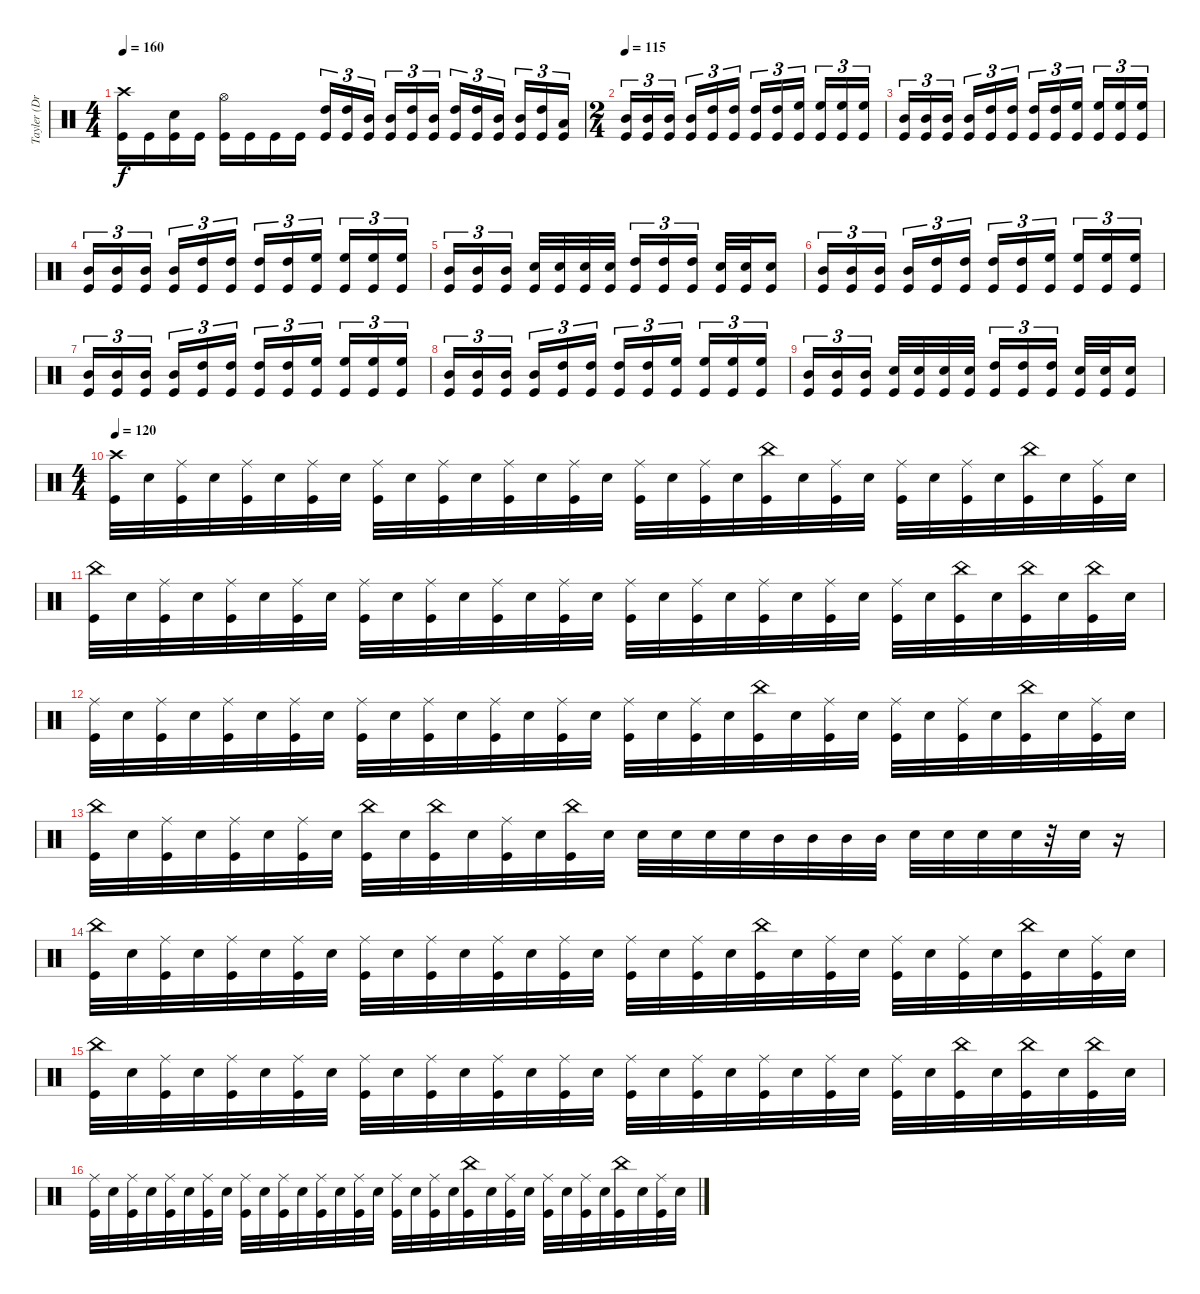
\track ("Tayler (Drums)" "Tayler (Dr") {instrument percussion}
\staff {score}
\articulation defaults
\ts (4 4)
\tempo 160
\clef neutral
\ks c
("Crash high (hit)" "Kick (hit)").16{dy f} "Kick (hit)".16 ("Electric Snare (hit)" "Kick (hit)").16 "Kick (hit)".16 ("Hi-Hat (open)" "Kick (hit)").16 "Kick (hit)".16 "Kick (hit)".16 "Kick (hit)".16 ("High Tom (hit)" "Kick (hit)").16{tu (3 2)} ("High Tom (hit)" "Kick (hit)").16{tu (3 2)} ("Mid Tom (hit)" "Kick (hit)").16{tu (3 2)} ("Mid Tom (hit)" "Kick (hit)").16{tu (3 2)} ("High Tom (hit)" "Kick (hit)").16{tu (3 2)} ("Mid Tom (hit)" "Kick (hit)").16{tu (3 2)} ("High Tom (hit)" "Kick (hit)").16{tu (3 2)} ("High Tom (hit)" "Kick (hit)").16{tu (3 2)} ("Mid Tom (hit)" "Kick (hit)").16{tu (3 2)} ("Mid Tom (hit)" "Kick (hit)").16{tu (3 2)} ("High Tom (hit)" "Kick (hit)").16{tu (3 2)} ("Low Tom (hit)" "Kick (hit)").16{tu (3 2)} |
\ts (2 4)
\tempo 115
("Mid Tom (hit)" "Kick (hit)").16{tu (3 2)} ("Mid Tom (hit)" "Kick (hit)").16{tu (3 2)} ("Mid Tom (hit)" "Kick (hit)").16{tu (3 2)} ("Mid Tom (hit)" "Kick (hit)").16{tu (3 2)} ("High Tom (hit)" "Kick (hit)").16{tu (3 2)} ("High Tom (hit)" "Kick (hit)").16{tu (3 2)} ("High Tom (hit)" "Kick (hit)").16{tu (3 2)} ("High Tom (hit)" "Kick (hit)").16{tu (3 2)} ("High Floor Tom (hit)" "Kick (hit)").16{tu (3 2)} ("High Floor Tom (hit)" "Kick (hit)").16{tu (3 2)} ("High Floor Tom (hit)" "Kick (hit)").16{tu (3 2)} ("High Floor Tom (hit)" "Kick (hit)").16{tu (3 2)} |
("Mid Tom (hit)" "Kick (hit)").16{tu (3 2)} ("Mid Tom (hit)" "Kick (hit)").16{tu (3 2)} ("Mid Tom (hit)" "Kick (hit)").16{tu (3 2)} ("Mid Tom (hit)" "Kick (hit)").16{tu (3 2)} ("High Tom (hit)" "Kick (hit)").16{tu (3 2)} ("High Tom (hit)" "Kick (hit)").16{tu (3 2)} ("High Tom (hit)" "Kick (hit)").16{tu (3 2)} ("High Tom (hit)" "Kick (hit)").16{tu (3 2)} ("High Floor Tom (hit)" "Kick (hit)").16{tu (3 2)} ("High Floor Tom (hit)" "Kick (hit)").16{tu (3 2)} ("High Floor Tom (hit)" "Kick (hit)").16{tu (3 2)} ("High Floor Tom (hit)" "Kick (hit)").16{tu (3 2)} |
("Mid Tom (hit)" "Kick (hit)").16{tu (3 2)} ("Mid Tom (hit)" "Kick (hit)").16{tu (3 2)} ("Mid Tom (hit)" "Kick (hit)").16{tu (3 2)} ("Mid Tom (hit)" "Kick (hit)").16{tu (3 2)} ("High Tom (hit)" "Kick (hit)").16{tu (3 2)} ("High Tom (hit)" "Kick (hit)").16{tu (3 2)} ("High Tom (hit)" "Kick (hit)").16{tu (3 2)} ("High Tom (hit)" "Kick (hit)").16{tu (3 2)} ("High Floor Tom (hit)" "Kick (hit)").16{tu (3 2)} ("High Floor Tom (hit)" "Kick (hit)").16{tu (3 2)} ("High Floor Tom (hit)" "Kick (hit)").16{tu (3 2)} ("High Floor Tom (hit)" "Kick (hit)").16{tu (3 2)} |
("Mid Tom (hit)" "Kick (hit)").16{tu (3 2)} ("Mid Tom (hit)" "Kick (hit)").16{tu (3 2)} ("Mid Tom (hit)" "Kick (hit)").16{tu (3 2)} ("Electric Snare (hit)" "Kick (hit)").32 ("Electric Snare (hit)" "Kick (hit)").32 ("Electric Snare (hit)" "Kick (hit)").32 ("Electric Snare (hit)" "Kick (hit)").32 ("High Tom (hit)" "Kick (hit)").16{tu (3 2)} ("High Tom (hit)" "Kick (hit)").16{tu (3 2)} ("High Tom (hit)" "Kick (hit)").16{tu (3 2)} ("Electric Snare (hit)" "Kick (hit)").32 ("Electric Snare (hit)" "Kick (hit)").32 ("Electric Snare (hit)" "Kick (hit)").16 |
("Mid Tom (hit)" "Kick (hit)").16{tu (3 2)} ("Mid Tom (hit)" "Kick (hit)").16{tu (3 2)} ("Mid Tom (hit)" "Kick (hit)").16{tu (3 2)} ("Mid Tom (hit)" "Kick (hit)").16{tu (3 2)} ("High Tom (hit)" "Kick (hit)").16{tu (3 2)} ("High Tom (hit)" "Kick (hit)").16{tu (3 2)} ("High Tom (hit)" "Kick (hit)").16{tu (3 2)} ("High Tom (hit)" "Kick (hit)").16{tu (3 2)} ("High Floor Tom (hit)" "Kick (hit)").16{tu (3 2)} ("High Floor Tom (hit)" "Kick (hit)").16{tu (3 2)} ("High Floor Tom (hit)" "Kick (hit)").16{tu (3 2)} ("High Floor Tom (hit)" "Kick (hit)").16{tu (3 2)} |
("Mid Tom (hit)" "Kick (hit)").16{tu (3 2)} ("Mid Tom (hit)" "Kick (hit)").16{tu (3 2)} ("Mid Tom (hit)" "Kick (hit)").16{tu (3 2)} ("Mid Tom (hit)" "Kick (hit)").16{tu (3 2)} ("High Tom (hit)" "Kick (hit)").16{tu (3 2)} ("High Tom (hit)" "Kick (hit)").16{tu (3 2)} ("High Tom (hit)" "Kick (hit)").16{tu (3 2)} ("High Tom (hit)" "Kick (hit)").16{tu (3 2)} ("High Floor Tom (hit)" "Kick (hit)").16{tu (3 2)} ("High Floor Tom (hit)" "Kick (hit)").16{tu (3 2)} ("High Floor Tom (hit)" "Kick (hit)").16{tu (3 2)} ("High Floor Tom (hit)" "Kick (hit)").16{tu (3 2)} |
("Mid Tom (hit)" "Kick (hit)").16{tu (3 2)} ("Mid Tom (hit)" "Kick (hit)").16{tu (3 2)} ("Mid Tom (hit)" "Kick (hit)").16{tu (3 2)} ("Mid Tom (hit)" "Kick (hit)").16{tu (3 2)} ("High Tom (hit)" "Kick (hit)").16{tu (3 2)} ("High Tom (hit)" "Kick (hit)").16{tu (3 2)} ("High Tom (hit)" "Kick (hit)").16{tu (3 2)} ("High Tom (hit)" "Kick (hit)").16{tu (3 2)} ("High Floor Tom (hit)" "Kick (hit)").16{tu (3 2)} ("High Floor Tom (hit)" "Kick (hit)").16{tu (3 2)} ("High Floor Tom (hit)" "Kick (hit)").16{tu (3 2)} ("High Floor Tom (hit)" "Kick (hit)").16{tu (3 2)} |
("Mid Tom (hit)" "Kick (hit)").16{tu (3 2)} ("Mid Tom (hit)" "Kick (hit)").16{tu (3 2)} ("Mid Tom (hit)" "Kick (hit)").16{tu (3 2)} ("Electric Snare (hit)" "Kick (hit)").32 ("Electric Snare (hit)" "Kick (hit)").32 ("Electric Snare (hit)" "Kick (hit)").32 ("Electric Snare (hit)" "Kick (hit)").32 ("High Tom (hit)" "Kick (hit)").16{tu (3 2)} ("High Tom (hit)" "Kick (hit)").16{tu (3 2)} ("High Tom (hit)" "Kick (hit)").16{tu (3 2)} ("Electric Snare (hit)" "Kick (hit)").32 ("Electric Snare (hit)" "Kick (hit)").32 ("Electric Snare (hit)" "Kick (hit)").16 |
\ts (4 4)
\tempo 120
("Crash high (hit)" "Kick (hit)").32 "Electric Snare (hit)".32 ("Ride (middle)" "Kick (hit)").32 "Electric Snare (hit)".32 ("Ride (middle)" "Kick (hit)").32 "Electric Snare (hit)".32 ("Ride (middle)" "Kick (hit)").32 "Electric Snare (hit)".32 ("Ride (middle)" "Kick (hit)").32 "Electric Snare (hit)".32 ("Ride (middle)" "Kick (hit)").32 "Electric Snare (hit)".32 ("Ride (middle)" "Kick (hit)").32 "Electric Snare (hit)".32 ("Ride (middle)" "Kick (hit)").32 "Electric Snare (hit)".32 ("Ride (middle)" "Kick (hit)").32 "Electric Snare (hit)".32 ("Ride (middle)" "Kick (hit)").32 "Electric Snare (hit)".32 ("China (hit)" "Kick (hit)").32 "Electric Snare (hit)".32 ("Ride (middle)" "Kick (hit)").32 "Electric Snare (hit)".32 ("Ride (middle)" "Kick (hit)").32 "Electric Snare (hit)".32 ("Ride (middle)" "Kick (hit)").32 "Electric Snare (hit)".32 ("China (hit)" "Kick (hit)").32 "Electric Snare (hit)".32 ("Ride (middle)" "Kick (hit)").32 "Electric Snare (hit)".32 |
("China (hit)" "Kick (hit)").32 "Electric Snare (hit)".32 ("Ride (middle)" "Kick (hit)").32 "Electric Snare (hit)".32 ("Ride (middle)" "Kick (hit)").32 "Electric Snare (hit)".32 ("Ride (middle)" "Kick (hit)").32 "Electric Snare (hit)".32 ("Ride (middle)" "Kick (hit)").32 "Electric Snare (hit)".32 ("Ride (middle)" "Kick (hit)").32 "Electric Snare (hit)".32 ("Ride (middle)" "Kick (hit)").32 "Electric Snare (hit)".32 ("Ride (middle)" "Kick (hit)").32 "Electric Snare (hit)".32 ("Ride (middle)" "Kick (hit)").32 "Electric Snare (hit)".32 ("Ride (middle)" "Kick (hit)").32 "Electric Snare (hit)".32 ("Ride (middle)" "Kick (hit)").32 "Electric Snare (hit)".32 ("Ride (middle)" "Kick (hit)").32 "Electric Snare (hit)".32 ("Ride (middle)" "Kick (hit)").32 "Electric Snare (hit)".32 ("China (hit)" "Kick (hit)").32 "Electric Snare (hit)".32 ("China (hit)" "Kick (hit)").32 "Electric Snare (hit)".32 ("China (hit)" "Kick (hit)").32 "Electric Snare (hit)".32 |
("Ride (middle)" "Kick (hit)").32 "Electric Snare (hit)".32 ("Ride (middle)" "Kick (hit)").32 "Electric Snare (hit)".32 ("Ride (middle)" "Kick (hit)").32 "Electric Snare (hit)".32 ("Ride (middle)" "Kick (hit)").32 "Electric Snare (hit)".32 ("Ride (middle)" "Kick (hit)").32 "Electric Snare (hit)".32 ("Ride (middle)" "Kick (hit)").32 "Electric Snare (hit)".32 ("Ride (middle)" "Kick (hit)").32 "Electric Snare (hit)".32 ("Ride (middle)" "Kick (hit)").32 "Electric Snare (hit)".32 ("Ride (middle)" "Kick (hit)").32 "Electric Snare (hit)".32 ("Ride (middle)" "Kick (hit)").32 "Electric Snare (hit)".32 ("China (hit)" "Kick (hit)").32 "Electric Snare (hit)".32 ("Ride (middle)" "Kick (hit)").32 "Electric Snare (hit)".32 ("Ride (middle)" "Kick (hit)").32 "Electric Snare (hit)".32 ("Ride (middle)" "Kick (hit)").32 "Electric Snare (hit)".32 ("China (hit)" "Kick (hit)").32 "Electric Snare (hit)".32 ("Ride (middle)" "Kick (hit)").32 "Electric Snare (hit)".32 |
("China (hit)" "Kick (hit)").32 "Electric Snare (hit)".32 ("Ride (middle)" "Kick (hit)").32 "Electric Snare (hit)".32 ("Ride (middle)" "Kick (hit)").32 "Electric Snare (hit)".32 ("Ride (middle)" "Kick (hit)").32 "Electric Snare (hit)".32 ("China (hit)" "Kick (hit)").32 "Electric Snare (hit)".32 ("China (hit)" "Kick (hit)").32 "Electric Snare (hit)".32 ("Ride (middle)" "Kick (hit)").32 "Electric Snare (hit)".32 ("China (hit)" "Kick (hit)").32 "Electric Snare (hit)".32 "Electric Snare (hit)".32 "Electric Snare (hit)".32 "Electric Snare (hit)".32 "Electric Snare (hit)".32 "Mid Tom (hit)".32 "Mid Tom (hit)".32 "Mid Tom (hit)".32 "Mid Tom (hit)".32 "Electric Snare (hit)".32 "Electric Snare (hit)".32 "Electric Snare (hit)".32 "Electric Snare (hit)".32 r.32 "Electric Snare (hit)".32 r.16 |
("China (hit)" "Kick (hit)").32 "Electric Snare (hit)".32 ("Ride (middle)" "Kick (hit)").32 "Electric Snare (hit)".32 ("Ride (middle)" "Kick (hit)").32 "Electric Snare (hit)".32 ("Ride (middle)" "Kick (hit)").32 "Electric Snare (hit)".32 ("Ride (middle)" "Kick (hit)").32 "Electric Snare (hit)".32 ("Ride (middle)" "Kick (hit)").32 "Electric Snare (hit)".32 ("Ride (middle)" "Kick (hit)").32 "Electric Snare (hit)".32 ("Ride (middle)" "Kick (hit)").32 "Electric Snare (hit)".32 ("Ride (middle)" "Kick (hit)").32 "Electric Snare (hit)".32 ("Ride (middle)" "Kick (hit)").32 "Electric Snare (hit)".32 ("China (hit)" "Kick (hit)").32 "Electric Snare (hit)".32 ("Ride (middle)" "Kick (hit)").32 "Electric Snare (hit)".32 ("Ride (middle)" "Kick (hit)").32 "Electric Snare (hit)".32 ("Ride (middle)" "Kick (hit)").32 "Electric Snare (hit)".32 ("China (hit)" "Kick (hit)").32 "Electric Snare (hit)".32 ("Ride (middle)" "Kick (hit)").32 "Electric Snare (hit)".32 |
("China (hit)" "Kick (hit)").32 "Electric Snare (hit)".32 ("Ride (middle)" "Kick (hit)").32 "Electric Snare (hit)".32 ("Ride (middle)" "Kick (hit)").32 "Electric Snare (hit)".32 ("Ride (middle)" "Kick (hit)").32 "Electric Snare (hit)".32 ("Ride (middle)" "Kick (hit)").32 "Electric Snare (hit)".32 ("Ride (middle)" "Kick (hit)").32 "Electric Snare (hit)".32 ("Ride (middle)" "Kick (hit)").32 "Electric Snare (hit)".32 ("Ride (middle)" "Kick (hit)").32 "Electric Snare (hit)".32 ("Ride (middle)" "Kick (hit)").32 "Electric Snare (hit)".32 ("Ride (middle)" "Kick (hit)").32 "Electric Snare (hit)".32 ("Ride (middle)" "Kick (hit)").32 "Electric Snare (hit)".32 ("Ride (middle)" "Kick (hit)").32 "Electric Snare (hit)".32 ("Ride (middle)" "Kick (hit)").32 "Electric Snare (hit)".32 ("China (hit)" "Kick (hit)").32 "Electric Snare (hit)".32 ("China (hit)" "Kick (hit)").32 "Electric Snare (hit)".32 ("China (hit)" "Kick (hit)").32 "Electric Snare (hit)".32 |
("Ride (middle)" "Kick (hit)").32 "Electric Snare (hit)".32 ("Ride (middle)" "Kick (hit)").32 "Electric Snare (hit)".32 ("Ride (middle)" "Kick (hit)").32 "Electric Snare (hit)".32 ("Ride (middle)" "Kick (hit)").32 "Electric Snare (hit)".32 ("Ride (middle)" "Kick (hit)").32 "Electric Snare (hit)".32 ("Ride (middle)" "Kick (hit)").32 "Electric Snare (hit)".32 ("Ride (middle)" "Kick (hit)").32 "Electric Snare (hit)".32 ("Ride (middle)" "Kick (hit)").32 "Electric Snare (hit)".32 ("Ride (middle)" "Kick (hit)").32 "Electric Snare (hit)".32 ("Ride (middle)" "Kick (hit)").32 "Electric Snare (hit)".32 ("China (hit)" "Kick (hit)").32 "Electric Snare (hit)".32 ("Ride (middle)" "Kick (hit)").32 "Electric Snare (hit)".32 ("Ride (middle)" "Kick (hit)").32 "Electric Snare (hit)".32 ("Ride (middle)" "Kick (hit)").32 "Electric Snare (hit)".32 ("China (hit)" "Kick (hit)").32 "Electric Snare (hit)".32 ("Ride (middle)" "Kick (hit)").32 "Electric Snare (hit)".32
